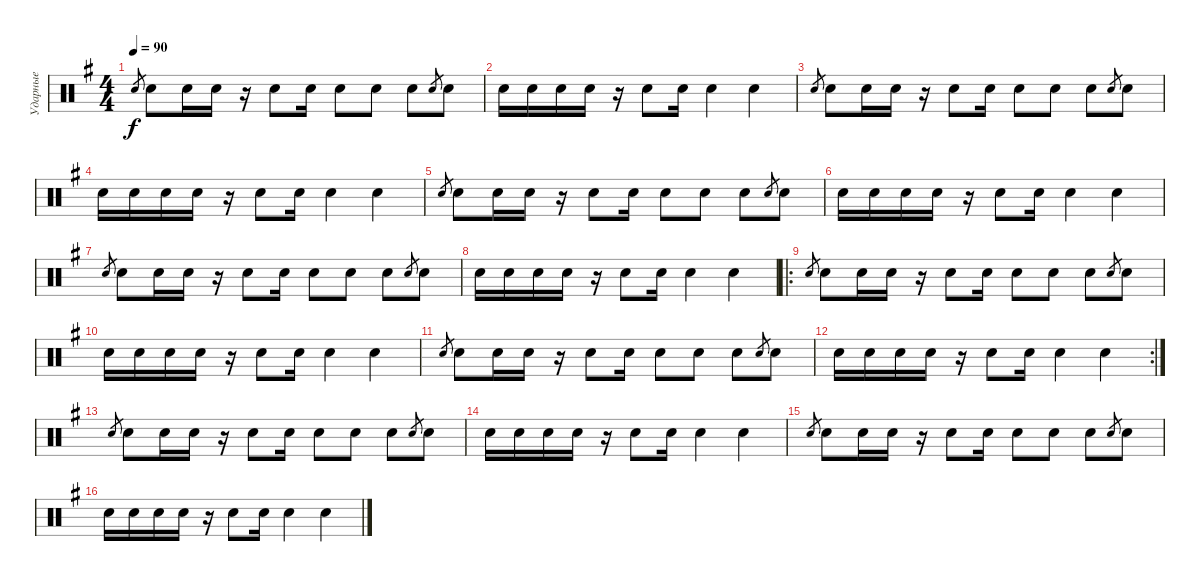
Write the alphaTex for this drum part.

\track ("Ударные" "Ударные") {instrument percussion}
\staff {score}
\articulation defaults
\ts (4 4)
\tempo 90
\clef neutral
\ks g "Snare (hit) 2".8{gr dy f} "Snare (hit) 2".8 "Snare (hit) 2".16 "Snare (hit) 2".16
r.16 "Snare (hit) 2".8 "Snare (hit) 2".16 "Snare (hit) 2".8 "Snare (hit) 2".8 "Snare (hit) 2".8 "Snare (hit) 2".8{gr} "Snare (hit) 2".8 |
"Snare (hit) 2".16 "Snare (hit) 2".16 "Snare (hit) 2".16 "Snare (hit) 2".16 r.16 "Snare (hit) 2".8 "Snare (hit) 2".16 "Snare (hit) 2".4 "Snare (hit) 2".4 |
"Snare (hit) 2".8{gr} "Snare (hit) 2".8 "Snare (hit) 2".16 "Snare (hit) 2".16 r.16 "Snare (hit) 2".8 "Snare (hit) 2".16 "Snare (hit) 2".8 "Snare (hit) 2".8 "Snare (hit) 2".8 "Snare (hit) 2".8{gr} "Snare (hit) 2".8 |
"Snare (hit) 2".16 "Snare (hit) 2".16 "Snare (hit) 2".16 "Snare (hit) 2".16 r.16 "Snare (hit) 2".8 "Snare (hit) 2".16 "Snare (hit) 2".4 "Snare (hit) 2".4 |
"Snare (hit) 2".8{gr} "Snare (hit) 2".8 "Snare (hit) 2".16 "Snare (hit) 2".16 r.16 "Snare (hit) 2".8 "Snare (hit) 2".16 "Snare (hit) 2".8 "Snare (hit) 2".8 "Snare (hit) 2".8 "Snare (hit) 2".8{gr} "Snare (hit) 2".8 |
"Snare (hit) 2".16 "Snare (hit) 2".16 "Snare (hit) 2".16 "Snare (hit) 2".16 r.16 "Snare (hit) 2".8 "Snare (hit) 2".16 "Snare (hit) 2".4 "Snare (hit) 2".4 |
"Snare (hit) 2".8{gr} "Snare (hit) 2".8 "Snare (hit) 2".16 "Snare (hit) 2".16 r.16 "Snare (hit) 2".8 "Snare (hit) 2".16 "Snare (hit) 2".8 "Snare (hit) 2".8 "Snare (hit) 2".8 "Snare (hit) 2".8{gr} "Snare (hit) 2".8 |
"Snare (hit) 2".16 "Snare (hit) 2".16 "Snare (hit) 2".16 "Snare (hit) 2".16 r.16 "Snare (hit) 2".8 "Snare (hit) 2".16 "Snare (hit) 2".4 "Snare (hit) 2".4 |
\ro "Snare (hit) 2".8{gr} "Snare (hit) 2".8 "Snare (hit) 2".16 "Snare (hit) 2".16
r.16 "Snare (hit) 2".8 "Snare (hit) 2".16 "Snare (hit) 2".8 "Snare (hit) 2".8 "Snare (hit) 2".8 "Snare (hit) 2".8{gr} "Snare (hit) 2".8 |
"Snare (hit) 2".16 "Snare (hit) 2".16 "Snare (hit) 2".16 "Snare (hit) 2".16 r.16 "Snare (hit) 2".8 "Snare (hit) 2".16 "Snare (hit) 2".4 "Snare (hit) 2".4 |
"Snare (hit) 2".8{gr} "Snare (hit) 2".8 "Snare (hit) 2".16 "Snare (hit) 2".16 r.16 "Snare (hit) 2".8 "Snare (hit) 2".16 "Snare (hit) 2".8 "Snare (hit) 2".8 "Snare (hit) 2".8 "Snare (hit) 2".8{gr} "Snare (hit) 2".8 |
\rc 2 "Snare (hit) 2".16 "Snare (hit) 2".16 "Snare (hit) 2".16 "Snare (hit) 2".16
r.16 "Snare (hit) 2".8 "Snare (hit) 2".16 "Snare (hit) 2".4 "Snare (hit) 2".4 |
"Snare (hit) 2".8{gr} "Snare (hit) 2".8 "Snare (hit) 2".16 "Snare (hit) 2".16 r.16 "Snare (hit) 2".8 "Snare (hit) 2".16 "Snare (hit) 2".8 "Snare (hit) 2".8 "Snare (hit) 2".8 "Snare (hit) 2".8{gr} "Snare (hit) 2".8 |
"Snare (hit) 2".16 "Snare (hit) 2".16 "Snare (hit) 2".16 "Snare (hit) 2".16 r.16 "Snare (hit) 2".8 "Snare (hit) 2".16 "Snare (hit) 2".4 "Snare (hit) 2".4 |
"Snare (hit) 2".8{gr} "Snare (hit) 2".8 "Snare (hit) 2".16 "Snare (hit) 2".16 r.16 "Snare (hit) 2".8 "Snare (hit) 2".16 "Snare (hit) 2".8 "Snare (hit) 2".8 "Snare (hit) 2".8 "Snare (hit) 2".8{gr} "Snare (hit) 2".8 |
"Snare (hit) 2".16 "Snare (hit) 2".16 "Snare (hit) 2".16 "Snare (hit) 2".16 r.16 "Snare (hit) 2".8 "Snare (hit) 2".16 "Snare (hit) 2".4 "Snare (hit) 2".4
